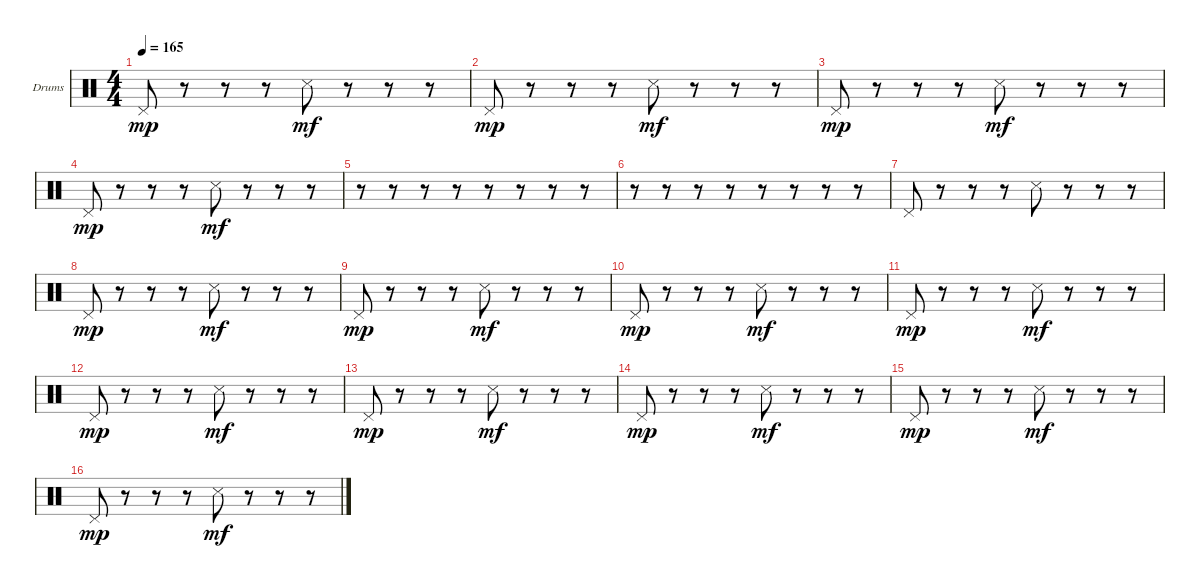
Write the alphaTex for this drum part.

\defaultSystemsLayout 4
\bracketExtendMode groupsimilarinstruments
\firstSystemTrackNameOrientation horizontal
\otherSystemsTrackNameOrientation horizontal
\track ("Drumkit" "Drums") {instrument percussion}
\staff {score}
\articulation defaults
\ts (4 4)
\tempo 165
\clef neutral
\ks c "Pedal Hi-Hat (hit)".8{dy mp}
r.8 r.8 r.8 "Snare (side stick) 3".8{dy mf} r.8 r.8 r.8 |
"Pedal Hi-Hat (hit)".8{dy mp} r.8 r.8 r.8 "Snare (side stick) 3".8{dy mf} r.8 r.8 r.8 |
"Pedal Hi-Hat (hit)".8{dy mp} r.8 r.8 r.8 "Snare (side stick) 3".8{dy mf} r.8 r.8 r.8 |
"Pedal Hi-Hat (hit)".8{dy mp} r.8 r.8 r.8 "Snare (side stick) 3".8{dy mf} r.8 r.8 r.8 |
r.8 r.8 r.8 r.8 r.8 r.8 r.8 r.8 |
r.8 r.8 r.8 r.8 r.8 r.8 r.8 r.8 |
"Pedal Hi-Hat (hit)".8 r.8 r.8 r.8 "Snare (side stick) 3".8 r.8 r.8 r.8 |
"Pedal Hi-Hat (hit)".8{dy mp} r.8 r.8 r.8 "Snare (side stick) 3".8{dy mf} r.8 r.8 r.8 |
"Pedal Hi-Hat (hit)".8{dy mp} r.8 r.8 r.8 "Snare (side stick) 3".8{dy mf} r.8 r.8 r.8 |
"Pedal Hi-Hat (hit)".8{dy mp} r.8 r.8 r.8 "Snare (side stick) 3".8{dy mf} r.8 r.8 r.8 |
"Pedal Hi-Hat (hit)".8{dy mp} r.8 r.8 r.8 "Snare (side stick) 3".8{dy mf} r.8 r.8 r.8 |
"Pedal Hi-Hat (hit)".8{dy mp} r.8 r.8 r.8 "Snare (side stick) 3".8{dy mf} r.8 r.8 r.8 |
"Pedal Hi-Hat (hit)".8{dy mp} r.8 r.8 r.8 "Snare (side stick) 3".8{dy mf} r.8 r.8 r.8 |
"Pedal Hi-Hat (hit)".8{dy mp} r.8 r.8 r.8 "Snare (side stick) 3".8{dy mf} r.8 r.8 r.8 |
"Pedal Hi-Hat (hit)".8{dy mp} r.8 r.8 r.8 "Snare (side stick) 3".8{dy mf} r.8 r.8 r.8 |
"Pedal Hi-Hat (hit)".8{dy mp} r.8 r.8 r.8 "Snare (side stick) 3".8{dy mf} r.8 r.8 r.8
